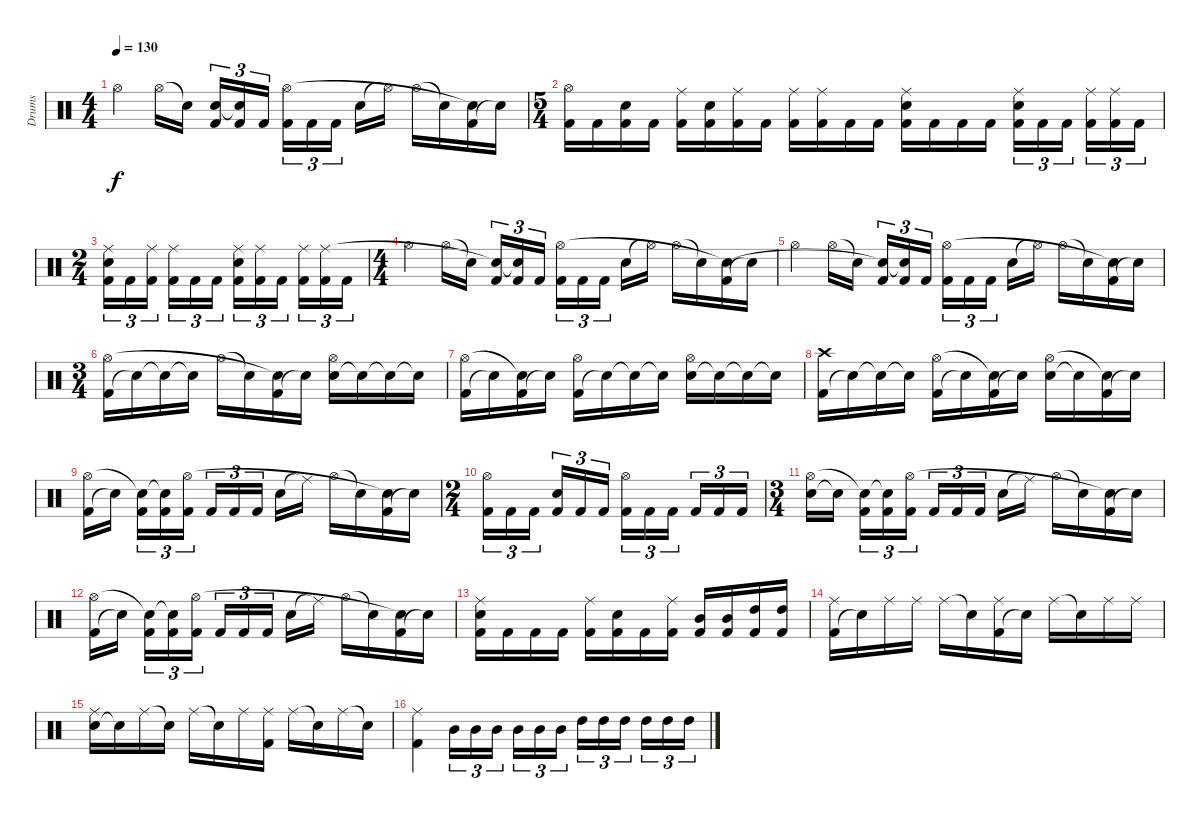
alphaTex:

\track ("Drums" "Drums") {instrument percussion}
\staff {score}
\articulation defaults
\ts (4 4)
\tempo 130
\clef neutral
\ks c "Hi-Hat (open)".4{dy f} "Hi-Hat (open)".16 "Snare (hit)"{t}.16
("Kick (hit) 2" "Snare (hit)"{t}).16{tu (3 2)} ("Kick (hit) 2" "Snare (hit)"{t}).16{tu (3 2)} "Kick (hit) 2".16{tu (3 2)} ("Kick (hit) 2" "Hi-Hat (open)").16{tu (3 2)} "Kick (hit) 2".16{tu (3 2)} "Kick (hit) 2".16{tu (3 2)} "Snare (hit) 2".16 "Hi-Hat (open)"{t}.16 "Hi-Hat (open)".16 "Snare (hit)"{t}.16 ("Kick (hit) 2" "Snare (hit)"{t}).16 "Snare (hit)"{t}.16 |
\ts (5 4)
("Kick (hit) 2" "Hi-Hat (open)").16 "Kick (hit) 2".16 ("Kick (hit) 2" "Snare (hit) 2").16 "Kick (hit) 2".16 ("Kick (hit) 2" "Ride (middle)").16 ("Kick (hit) 2" "Snare (hit) 2").16 ("Kick (hit) 2" "Ride (middle)").16 "Kick (hit) 2".16 ("Kick (hit) 2" "Ride (middle)").16 ("Kick (hit) 2" "Ride (middle)").16 "Kick (hit) 2".16 "Kick (hit) 2".16 ("Kick (hit) 2" "Snare (hit) 2" "Ride (middle)").16 "Kick (hit) 2".16 "Kick (hit) 2".16 "Kick (hit) 2".16 ("Kick (hit) 2" "Snare (hit) 2" "Ride (middle)").16{tu (3 2)} "Kick (hit) 2".16{tu (3 2)} "Kick (hit) 2".16{tu (3 2)} ("Kick (hit) 2" "Ride (middle)").16{tu (3 2)} ("Kick (hit) 2" "Ride (middle)").16{tu (3 2)} "Kick (hit) 2".16{tu (3 2)} |
\ts (2 4)
("Kick (hit) 2" "Snare (hit) 2" "Ride (middle)").16{tu (3 2)} "Kick (hit) 2".16{tu (3 2)} ("Kick (hit) 2" "Ride (middle)").16{tu (3 2)} ("Kick (hit) 2" "Ride (middle)").16{tu (3 2)} "Kick (hit) 2".16{tu (3 2)} "Kick (hit) 2".16{tu (3 2)} ("Kick (hit) 2" "Snare (hit) 2" "Ride (middle)").16{tu (3 2)} ("Kick (hit) 2" "Ride (middle)").16{tu (3 2)} "Kick (hit) 2".16{tu (3 2)} ("Kick (hit) 2" "Ride (middle)").16{tu (3 2)} ("Kick (hit) 2" "Ride (middle)").16{tu (3 2)} "Kick (hit) 2".16{tu (3 2)} |
\ts (4 4)
"Hi-Hat (open)".4 "Hi-Hat (open)".16 "Snare (hit)"{t}.16 ("Kick (hit) 2" "Snare (hit)"{t}).16{tu (3 2)} ("Kick (hit) 2" "Snare (hit)"{t}).16{tu (3 2)} "Kick (hit) 2".16{tu (3 2)} ("Kick (hit) 2" "Hi-Hat (open)").16{tu (3 2)} "Kick (hit) 2".16{tu (3 2)} "Kick (hit) 2".16{tu (3 2)} "Snare (hit) 2".16 "Hi-Hat (open)"{t}.16 "Hi-Hat (open)".16 "Snare (hit)"{t}.16 ("Kick (hit) 2" "Snare (hit)"{t}).16 "Snare (hit)"{t}.16 |
"Hi-Hat (open)".4 "Hi-Hat (open)".16 "Snare (hit)"{t}.16 ("Kick (hit) 2" "Snare (hit)"{t}).16{tu (3 2)} ("Kick (hit) 2" "Snare (hit)"{t}).16{tu (3 2)} "Kick (hit) 2".16{tu (3 2)} ("Kick (hit) 2" "Hi-Hat (open)").16{tu (3 2)} "Kick (hit) 2".16{tu (3 2)} "Kick (hit) 2".16{tu (3 2)} "Snare (hit) 2".16 "Hi-Hat (open)"{t}.16 "Hi-Hat (open)".16 "Snare (hit)"{t}.16 ("Kick (hit) 2" "Snare (hit)"{t}).16 "Snare (hit)"{t}.16 |
\ts (3 4)
("Kick (hit) 2" "Hi-Hat (open)").16 "Snare (hit)"{t}.16 "Snare (hit)"{t}.16 "Snare (hit)"{t}.16 "Hi-Hat (open)".16 "Snare (hit)"{t}.16 ("Kick (hit) 2" "Snare (hit)"{t}).16 "Snare (hit)"{t}.16 ("Snare (hit) 2" "Hi-Hat (open)").16 "Snare (hit)"{t}.16 "Snare (hit)"{t}.16 "Snare (hit)"{t}.16 |
("Kick (hit) 2" "Hi-Hat (open)").16 "Snare (hit)"{t}.16 ("Kick (hit) 2" "Snare (hit)"{t}).16 "Snare (hit)"{t}.16 ("Kick (hit) 2" "Hi-Hat (open)").16 "Snare (hit)"{t}.16 "Snare (hit)"{t}.16 "Snare (hit)"{t}.16 ("Snare (hit) 2" "Hi-Hat (open)").16 "Snare (hit)"{t}.16 "Snare (hit)"{t}.16 "Snare (hit)"{t}.16 |
("Kick (hit) 2" "Crash high (hit)").16 "Snare (hit)"{t}.16 "Snare (hit)"{t}.16 "Snare (hit)"{t}.16 ("Kick (hit) 2" "Hi-Hat (open)").16 "Snare (hit)"{t}.16 ("Kick (hit) 2" "Snare (hit)"{t}).16 "Snare (hit)"{t}.16 ("Snare (hit) 2" "Hi-Hat (open)").16 "Snare (hit)"{t}.16 ("Kick (hit) 2" "Snare (hit)"{t}).16 "Snare (hit)"{t}.16 |
("Kick (hit) 2" "Hi-Hat (open)").16 "Snare (hit)"{t}.16 ("Kick (hit) 2" "Snare (hit)"{t}).16{tu (3 2)} ("Kick (hit) 2" "Snare (hit)"{t}).16{tu (3 2)} ("Kick (hit) 2" "Hi-Hat (open)").16{tu (3 2)} "Kick (hit) 2".16{tu (3 2)} "Kick (hit) 2".16{tu (3 2)} "Kick (hit) 2".16{tu (3 2)} "Snare (hit) 2".16 "Ride (middle)"{t}.16 "Hi-Hat (open)".16 "Snare (hit)"{t}.16 ("Kick (hit) 2" "Snare (hit)"{t}).16 "Snare (hit)"{t}.16 |
\ts (2 4)
("Kick (hit) 2" "Hi-Hat (open)").16{tu (3 2)} "Kick (hit) 2".16{tu (3 2)} "Kick (hit) 2".16{tu (3 2)} ("Kick (hit) 2" "Snare (hit) 2").16{tu (3 2)} "Kick (hit) 2".16{tu (3 2)} "Kick (hit) 2".16{tu (3 2)} ("Kick (hit) 2" "Hi-Hat (open)").16{tu (3 2)} "Kick (hit) 2".16{tu (3 2)} "Kick (hit) 2".16{tu (3 2)} "Kick (hit) 2".16{tu (3 2)} "Kick (hit) 2".16{tu (3 2)} "Kick (hit) 2".16{tu (3 2)} |
\ts (3 4)
("Snare (hit) 2" "Hi-Hat (open)").16 "Snare (hit)"{t}.16 ("Kick (hit) 2" "Snare (hit)"{t}).16{tu (3 2)} ("Kick (hit) 2" "Snare (hit)"{t}).16{tu (3 2)} ("Kick (hit) 2" "Hi-Hat (open)").16{tu (3 2)} "Kick (hit) 2".16{tu (3 2)} "Kick (hit) 2".16{tu (3 2)} "Kick (hit) 2".16{tu (3 2)} "Snare (hit) 2".16 "Ride (middle)"{t}.16 "Hi-Hat (open)".16 "Snare (hit)"{t}.16 ("Kick (hit) 2" "Snare (hit)"{t}).16 "Snare (hit)"{t}.16 |
("Kick (hit) 2" "Hi-Hat (open)").16 "Snare (hit)"{t}.16 ("Kick (hit) 2" "Snare (hit)"{t}).16{tu (3 2)} ("Kick (hit) 2" "Snare (hit)"{t}).16{tu (3 2)} ("Kick (hit) 2" "Hi-Hat (open)").16{tu (3 2)} "Kick (hit) 2".16{tu (3 2)} "Kick (hit) 2".16{tu (3 2)} "Kick (hit) 2".16{tu (3 2)} "Snare (hit) 2".16 "Ride (middle)"{t}.16 "Hi-Hat (open)".16 "Snare (hit)"{t}.16 ("Kick (hit) 2" "Snare (hit)"{t}).16 "Snare (hit)"{t}.16 |
("Kick (hit) 2" "Snare (hit) 2" "Ride (middle)").16 "Kick (hit) 2".16 "Kick (hit) 2".16 "Kick (hit) 2".16 ("Kick (hit) 2" "Ride (middle)").16 ("Kick (hit) 2" "Snare (hit) 2").16 "Kick (hit) 2".16 ("Kick (hit) 2" "Ride (middle)").16 ("Kick (hit) 2" "Mid Tom (hit)").16 ("Kick (hit) 2" "Mid Tom (hit)").16 ("Kick (hit) 2" "High Tom (hit)").16 ("Kick (hit) 2" "High Tom (hit)").16 |
("Kick (hit) 2" "Ride (middle)").16 "Snare (hit)"{t}.16 "Ride (middle)".16 "Ride (middle)".16 "Ride (middle)".16 "Snare (hit)"{t}.16 ("Kick (hit) 2" "Ride (middle)").16 "Snare (hit)"{t}.16 "Ride (middle)".16 "Snare (hit)"{t}.16 "Ride (middle)".16 "Ride (middle)".16 |
("Snare (hit) 2" "Ride (middle)").16 "Snare (hit)"{t}.16 "Ride (middle)".16 "Snare (hit)"{t}.16 "Ride (middle)".16 "Snare (hit)"{t}.16 "Ride (middle)".16 ("Kick (hit) 2" "Ride (middle)").16 "Ride (middle)".16 "Snare (hit)"{t}.16 "Ride (middle)".16 "Snare (hit)"{t}.16 |
("Kick (hit) 2" "Ride (middle)").4 "Mid Tom (hit)".16{tu (3 2)} "Mid Tom (hit)".16{tu (3 2)} "Mid Tom (hit)".16{tu (3 2)} "Mid Tom (hit)".16{tu (3 2)} "Mid Tom (hit)".16{tu (3 2)} "Mid Tom (hit)".16{tu (3 2)} "High Tom (hit)".16{tu (3 2)} "High Tom (hit)".16{tu (3 2)} "High Tom (hit)".16{tu (3 2)} "High Tom (hit)".16{tu (3 2)} "High Tom (hit)".16{tu (3 2)} "High Tom (hit)".16{tu (3 2)}
